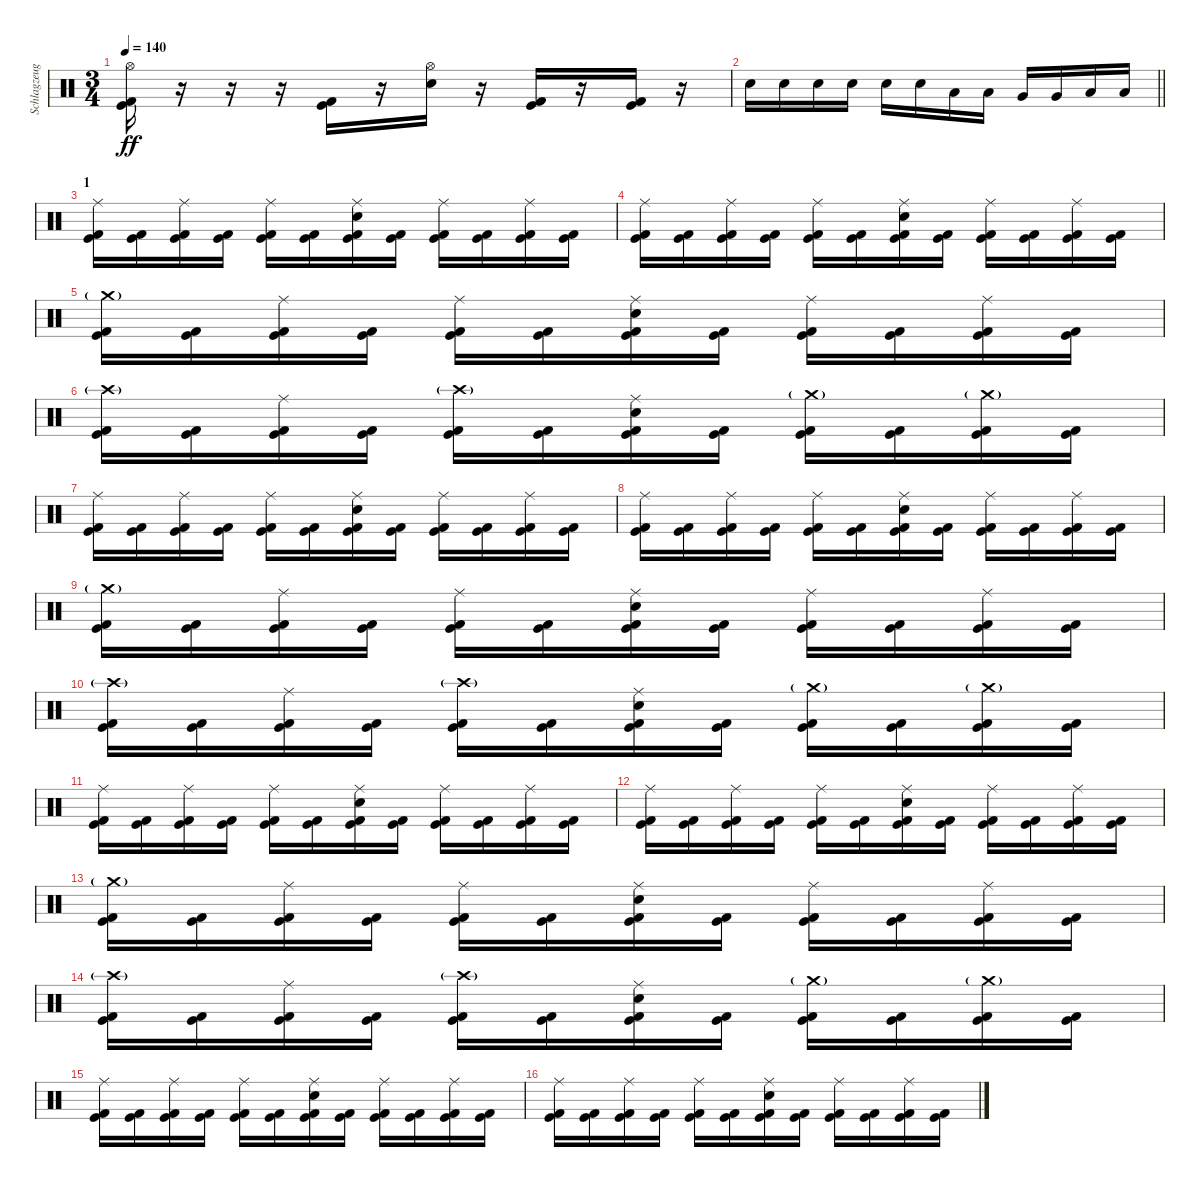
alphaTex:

\track ("Schlagzeug" "Schlagzeug") {instrument percussion}
\staff {score}
\articulation defaults
\ts (3 4)
\tempo 140
\clef neutral
\ks c
("Hi-Hat (open)" "Kick (hit)" "Kick (hit) 2").16{dy ff} r.16 r.16 r.16 ("Kick (hit)" "Kick (hit) 2").16 r.16 ("Hi-Hat (open)" "Electric Snare (hit)").16 r.16 ("Kick (hit)" "Kick (hit) 2").16 r.16 ("Kick (hit)" "Kick (hit) 2").16 r.16 |
\barLineRight lightlight "Snare (hit) 2".16 "Snare (hit) 2".16 "Snare (hit) 2".16 "Snare (hit) 2".16 "Snare (hit) 2".16 "Snare (hit) 2".16 "Low Tom (hit)".16 "Low Tom (hit)".16 "Very Low Tom (hit)".16 "Very Low Tom (hit)".16 "Low Floor Tom (hit)".16 "Low Floor Tom (hit)".16
|
\section ("" "1")
("Ride (middle)" "Kick (hit)" "Kick (hit) 2").16 ("Kick (hit)" "Kick (hit) 2").16 ("Ride (middle)" "Kick (hit)" "Kick (hit) 2").16 ("Kick (hit)" "Kick (hit) 2").16 ("Ride (middle)" "Kick (hit)" "Kick (hit) 2").16 ("Kick (hit)" "Kick (hit) 2").16 ("Ride (middle)" "Kick (hit)" "Kick (hit) 2" "Electric Snare (hit)").16 ("Kick (hit)" "Kick (hit) 2").16 ("Ride (middle)" "Kick (hit)" "Kick (hit) 2").16 ("Kick (hit)" "Kick (hit) 2").16 ("Ride (middle)" "Kick (hit)" "Kick (hit) 2").16 ("Kick (hit)" "Kick (hit) 2").16 |
("Ride (middle)" "Kick (hit)" "Kick (hit) 2").16 ("Kick (hit)" "Kick (hit) 2").16 ("Ride (middle)" "Kick (hit)" "Kick (hit) 2").16 ("Kick (hit)" "Kick (hit) 2").16 ("Ride (middle)" "Kick (hit)" "Kick (hit) 2").16 ("Kick (hit)" "Kick (hit) 2").16 ("Ride (middle)" "Kick (hit)" "Kick (hit) 2" "Electric Snare (hit)").16 ("Kick (hit)" "Kick (hit) 2").16 ("Ride (middle)" "Kick (hit)" "Kick (hit) 2").16 ("Kick (hit)" "Kick (hit) 2").16 ("Ride (middle)" "Kick (hit)" "Kick (hit) 2").16 ("Kick (hit)" "Kick (hit) 2").16 |
("Crash medium (hit)"{g} "Kick (hit)" "Kick (hit) 2").16 ("Kick (hit)" "Kick (hit) 2").16 ("Ride (middle)" "Kick (hit)" "Kick (hit) 2").16 ("Kick (hit)" "Kick (hit) 2").16 ("Ride (middle)" "Kick (hit)" "Kick (hit) 2").16 ("Kick (hit)" "Kick (hit) 2").16 ("Ride (middle)" "Kick (hit)" "Kick (hit) 2" "Electric Snare (hit)").16 ("Kick (hit)" "Kick (hit) 2").16 ("Ride (middle)" "Kick (hit)" "Kick (hit) 2").16 ("Kick (hit)" "Kick (hit) 2").16 ("Ride (middle)" "Kick (hit)" "Kick (hit) 2").16 ("Kick (hit)" "Kick (hit) 2").16 |
("Crash high (hit)"{g} "Kick (hit)" "Kick (hit) 2").16 ("Kick (hit)" "Kick (hit) 2").16 ("Ride (middle)" "Kick (hit)" "Kick (hit) 2").16 ("Kick (hit)" "Kick (hit) 2").16 ("Crash high (hit)"{g} "Kick (hit)" "Kick (hit) 2").16 ("Kick (hit)" "Kick (hit) 2").16 ("Ride (middle)" "Kick (hit)" "Kick (hit) 2" "Electric Snare (hit)").16 ("Kick (hit)" "Kick (hit) 2").16 ("Crash medium (hit)"{g} "Kick (hit)" "Kick (hit) 2").16 ("Kick (hit)" "Kick (hit) 2").16 ("Crash medium (hit)"{g} "Kick (hit)" "Kick (hit) 2").16 ("Kick (hit)" "Kick (hit) 2").16 |
("Ride (middle)" "Kick (hit)" "Kick (hit) 2").16 ("Kick (hit)" "Kick (hit) 2").16 ("Ride (middle)" "Kick (hit)" "Kick (hit) 2").16 ("Kick (hit)" "Kick (hit) 2").16 ("Ride (middle)" "Kick (hit)" "Kick (hit) 2").16 ("Kick (hit)" "Kick (hit) 2").16 ("Ride (middle)" "Kick (hit)" "Kick (hit) 2" "Electric Snare (hit)").16 ("Kick (hit)" "Kick (hit) 2").16 ("Ride (middle)" "Kick (hit)" "Kick (hit) 2").16 ("Kick (hit)" "Kick (hit) 2").16 ("Ride (middle)" "Kick (hit)" "Kick (hit) 2").16 ("Kick (hit)" "Kick (hit) 2").16 |
("Ride (middle)" "Kick (hit)" "Kick (hit) 2").16 ("Kick (hit)" "Kick (hit) 2").16 ("Ride (middle)" "Kick (hit)" "Kick (hit) 2").16 ("Kick (hit)" "Kick (hit) 2").16 ("Ride (middle)" "Kick (hit)" "Kick (hit) 2").16 ("Kick (hit)" "Kick (hit) 2").16 ("Ride (middle)" "Kick (hit)" "Kick (hit) 2" "Electric Snare (hit)").16 ("Kick (hit)" "Kick (hit) 2").16 ("Ride (middle)" "Kick (hit)" "Kick (hit) 2").16 ("Kick (hit)" "Kick (hit) 2").16 ("Ride (middle)" "Kick (hit)" "Kick (hit) 2").16 ("Kick (hit)" "Kick (hit) 2").16 |
("Crash medium (hit)"{g} "Kick (hit)" "Kick (hit) 2").16 ("Kick (hit)" "Kick (hit) 2").16 ("Ride (middle)" "Kick (hit)" "Kick (hit) 2").16 ("Kick (hit)" "Kick (hit) 2").16 ("Ride (middle)" "Kick (hit)" "Kick (hit) 2").16 ("Kick (hit)" "Kick (hit) 2").16 ("Ride (middle)" "Kick (hit)" "Kick (hit) 2" "Electric Snare (hit)").16 ("Kick (hit)" "Kick (hit) 2").16 ("Ride (middle)" "Kick (hit)" "Kick (hit) 2").16 ("Kick (hit)" "Kick (hit) 2").16 ("Ride (middle)" "Kick (hit)" "Kick (hit) 2").16 ("Kick (hit)" "Kick (hit) 2").16 |
("Crash high (hit)"{g} "Kick (hit)" "Kick (hit) 2").16 ("Kick (hit)" "Kick (hit) 2").16 ("Ride (middle)" "Kick (hit)" "Kick (hit) 2").16 ("Kick (hit)" "Kick (hit) 2").16 ("Crash high (hit)"{g} "Kick (hit)" "Kick (hit) 2").16 ("Kick (hit)" "Kick (hit) 2").16 ("Ride (middle)" "Kick (hit)" "Kick (hit) 2" "Electric Snare (hit)").16 ("Kick (hit)" "Kick (hit) 2").16 ("Crash medium (hit)"{g} "Kick (hit)" "Kick (hit) 2").16 ("Kick (hit)" "Kick (hit) 2").16 ("Crash medium (hit)"{g} "Kick (hit)" "Kick (hit) 2").16 ("Kick (hit)" "Kick (hit) 2").16 |
("Ride (middle)" "Kick (hit)" "Kick (hit) 2").16 ("Kick (hit)" "Kick (hit) 2").16 ("Ride (middle)" "Kick (hit)" "Kick (hit) 2").16 ("Kick (hit)" "Kick (hit) 2").16 ("Ride (middle)" "Kick (hit)" "Kick (hit) 2").16 ("Kick (hit)" "Kick (hit) 2").16 ("Ride (middle)" "Kick (hit)" "Kick (hit) 2" "Electric Snare (hit)").16 ("Kick (hit)" "Kick (hit) 2").16 ("Ride (middle)" "Kick (hit)" "Kick (hit) 2").16 ("Kick (hit)" "Kick (hit) 2").16 ("Ride (middle)" "Kick (hit)" "Kick (hit) 2").16 ("Kick (hit)" "Kick (hit) 2").16 |
("Ride (middle)" "Kick (hit)" "Kick (hit) 2").16 ("Kick (hit)" "Kick (hit) 2").16 ("Ride (middle)" "Kick (hit)" "Kick (hit) 2").16 ("Kick (hit)" "Kick (hit) 2").16 ("Ride (middle)" "Kick (hit)" "Kick (hit) 2").16 ("Kick (hit)" "Kick (hit) 2").16 ("Ride (middle)" "Kick (hit)" "Kick (hit) 2" "Electric Snare (hit)").16 ("Kick (hit)" "Kick (hit) 2").16 ("Ride (middle)" "Kick (hit)" "Kick (hit) 2").16 ("Kick (hit)" "Kick (hit) 2").16 ("Ride (middle)" "Kick (hit)" "Kick (hit) 2").16 ("Kick (hit)" "Kick (hit) 2").16 |
("Crash medium (hit)"{g} "Kick (hit)" "Kick (hit) 2").16 ("Kick (hit)" "Kick (hit) 2").16 ("Ride (middle)" "Kick (hit)" "Kick (hit) 2").16 ("Kick (hit)" "Kick (hit) 2").16 ("Ride (middle)" "Kick (hit)" "Kick (hit) 2").16 ("Kick (hit)" "Kick (hit) 2").16 ("Ride (middle)" "Kick (hit)" "Kick (hit) 2" "Electric Snare (hit)").16 ("Kick (hit)" "Kick (hit) 2").16 ("Ride (middle)" "Kick (hit)" "Kick (hit) 2").16 ("Kick (hit)" "Kick (hit) 2").16 ("Ride (middle)" "Kick (hit)" "Kick (hit) 2").16 ("Kick (hit)" "Kick (hit) 2").16 |
("Crash high (hit)"{g} "Kick (hit)" "Kick (hit) 2").16 ("Kick (hit)" "Kick (hit) 2").16 ("Ride (middle)" "Kick (hit)" "Kick (hit) 2").16 ("Kick (hit)" "Kick (hit) 2").16 ("Crash high (hit)"{g} "Kick (hit)" "Kick (hit) 2").16 ("Kick (hit)" "Kick (hit) 2").16 ("Ride (middle)" "Kick (hit)" "Kick (hit) 2" "Electric Snare (hit)").16 ("Kick (hit)" "Kick (hit) 2").16 ("Crash medium (hit)"{g} "Kick (hit)" "Kick (hit) 2").16 ("Kick (hit)" "Kick (hit) 2").16 ("Crash medium (hit)"{g} "Kick (hit)" "Kick (hit) 2").16 ("Kick (hit)" "Kick (hit) 2").16 |
("Ride (middle)" "Kick (hit)" "Kick (hit) 2").16 ("Kick (hit)" "Kick (hit) 2").16 ("Ride (middle)" "Kick (hit)" "Kick (hit) 2").16 ("Kick (hit)" "Kick (hit) 2").16 ("Ride (middle)" "Kick (hit)" "Kick (hit) 2").16 ("Kick (hit)" "Kick (hit) 2").16 ("Ride (middle)" "Kick (hit)" "Kick (hit) 2" "Electric Snare (hit)").16 ("Kick (hit)" "Kick (hit) 2").16 ("Ride (middle)" "Kick (hit)" "Kick (hit) 2").16 ("Kick (hit)" "Kick (hit) 2").16 ("Ride (middle)" "Kick (hit)" "Kick (hit) 2").16 ("Kick (hit)" "Kick (hit) 2").16 |
("Ride (middle)" "Kick (hit)" "Kick (hit) 2").16 ("Kick (hit)" "Kick (hit) 2").16 ("Ride (middle)" "Kick (hit)" "Kick (hit) 2").16 ("Kick (hit)" "Kick (hit) 2").16 ("Ride (middle)" "Kick (hit)" "Kick (hit) 2").16 ("Kick (hit)" "Kick (hit) 2").16 ("Ride (middle)" "Kick (hit)" "Kick (hit) 2" "Electric Snare (hit)").16 ("Kick (hit)" "Kick (hit) 2").16 ("Ride (middle)" "Kick (hit)" "Kick (hit) 2").16 ("Kick (hit)" "Kick (hit) 2").16 ("Ride (middle)" "Kick (hit)" "Kick (hit) 2").16 ("Kick (hit)" "Kick (hit) 2").16
